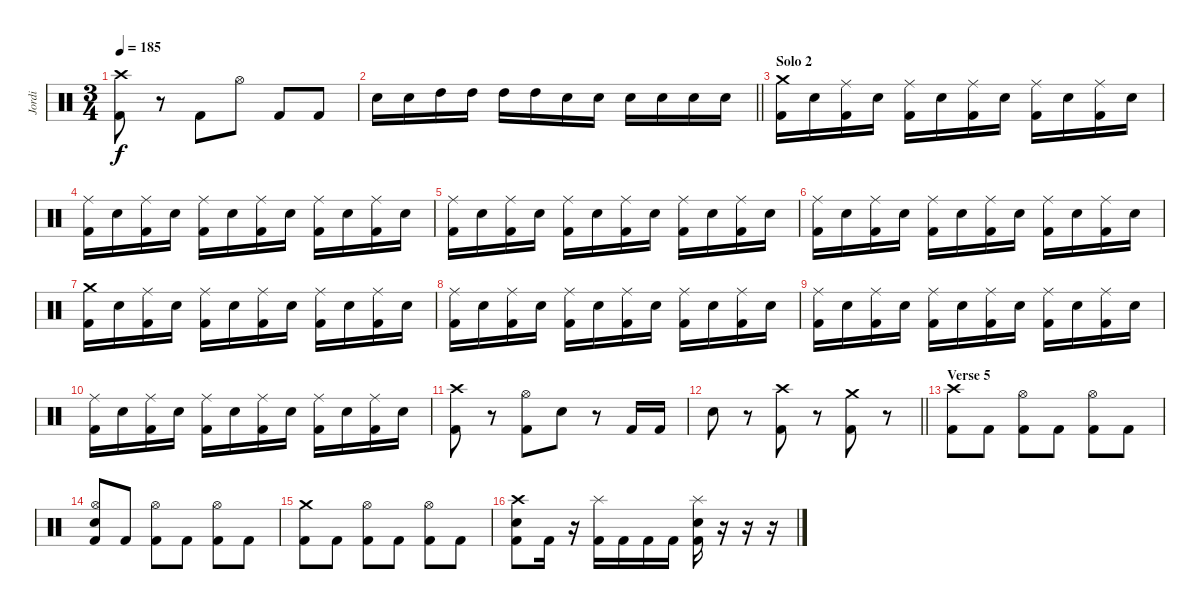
\track ("Jordi" "Jordi") {instrument percussion}
\staff {score}
\articulation defaults
\ts (3 4)
\tempo 185
\clef neutral
\ks c
("Crash high (hit)" "Kick (hit) 2").8{dy f} r.8 "Kick (hit) 2".8 "Hi-Hat (open)".8 "Kick (hit) 2".8 "Kick (hit) 2".8 |
\barLineRight lightlight "Snare (hit) 2".16 "Snare (hit) 2".16 "High Tom (hit)".16 "High Tom (hit)".16 "High Tom (hit)".16 "High Tom (hit)".16 "Snare (hit) 2".16 "Snare (hit) 2".16 "Snare (hit) 2".16 "Snare (hit) 2".16 "Snare (hit) 2".16 "Snare (hit) 2".16
|
\section ("" "Solo 2")
("Crash medium (hit)" "Kick (hit) 2").16 "Snare (hit) 2".16 ("Ride (middle)" "Kick (hit) 2").16 "Snare (hit) 2".16 ("Ride (middle)" "Kick (hit) 2").16 "Snare (hit) 2".16 ("Ride (middle)" "Kick (hit) 2").16 "Snare (hit) 2".16 ("Ride (middle)" "Kick (hit) 2").16 "Snare (hit) 2".16 ("Ride (middle)" "Kick (hit) 2").16 "Snare (hit) 2".16 |
("Ride (middle)" "Kick (hit) 2").16 "Snare (hit) 2".16 ("Ride (middle)" "Kick (hit) 2").16 "Snare (hit) 2".16 ("Ride (middle)" "Kick (hit) 2").16 "Snare (hit) 2".16 ("Ride (middle)" "Kick (hit) 2").16 "Snare (hit) 2".16 ("Ride (middle)" "Kick (hit) 2").16 "Snare (hit) 2".16 ("Ride (middle)" "Kick (hit) 2").16 "Snare (hit) 2".16 |
("Ride (middle)" "Kick (hit) 2").16 "Snare (hit) 2".16 ("Ride (middle)" "Kick (hit) 2").16 "Snare (hit) 2".16 ("Ride (middle)" "Kick (hit) 2").16 "Snare (hit) 2".16 ("Ride (middle)" "Kick (hit) 2").16 "Snare (hit) 2".16 ("Ride (middle)" "Kick (hit) 2").16 "Snare (hit) 2".16 ("Ride (middle)" "Kick (hit) 2").16 "Snare (hit) 2".16 |
("Ride (middle)" "Kick (hit) 2").16 "Snare (hit) 2".16 ("Ride (middle)" "Kick (hit) 2").16 "Snare (hit) 2".16 ("Ride (middle)" "Kick (hit) 2").16 "Snare (hit) 2".16 ("Ride (middle)" "Kick (hit) 2").16 "Snare (hit) 2".16 ("Ride (middle)" "Kick (hit) 2").16 "Snare (hit) 2".16 ("Ride (middle)" "Kick (hit) 2").16 "Snare (hit) 2".16 |
("Crash medium (hit)" "Kick (hit) 2").16 "Snare (hit) 2".16 ("Ride (middle)" "Kick (hit) 2").16 "Snare (hit) 2".16 ("Ride (middle)" "Kick (hit) 2").16 "Snare (hit) 2".16 ("Ride (middle)" "Kick (hit) 2").16 "Snare (hit) 2".16 ("Ride (middle)" "Kick (hit) 2").16 "Snare (hit) 2".16 ("Ride (middle)" "Kick (hit) 2").16 "Snare (hit) 2".16 |
("Ride (middle)" "Kick (hit) 2").16 "Snare (hit) 2".16 ("Ride (middle)" "Kick (hit) 2").16 "Snare (hit) 2".16 ("Ride (middle)" "Kick (hit) 2").16 "Snare (hit) 2".16 ("Ride (middle)" "Kick (hit) 2").16 "Snare (hit) 2".16 ("Ride (middle)" "Kick (hit) 2").16 "Snare (hit) 2".16 ("Ride (middle)" "Kick (hit) 2").16 "Snare (hit) 2".16 |
("Ride (middle)" "Kick (hit) 2").16 "Snare (hit) 2".16 ("Ride (middle)" "Kick (hit) 2").16 "Snare (hit) 2".16 ("Ride (middle)" "Kick (hit) 2").16 "Snare (hit) 2".16 ("Ride (middle)" "Kick (hit) 2").16 "Snare (hit) 2".16 ("Ride (middle)" "Kick (hit) 2").16 "Snare (hit) 2".16 ("Ride (middle)" "Kick (hit) 2").16 "Snare (hit) 2".16 |
("Ride (middle)" "Kick (hit) 2").16 "Snare (hit) 2".16 ("Ride (middle)" "Kick (hit) 2").16 "Snare (hit) 2".16 ("Ride (middle)" "Kick (hit) 2").16 "Snare (hit) 2".16 ("Ride (middle)" "Kick (hit) 2").16 "Snare (hit) 2".16 ("Ride (middle)" "Kick (hit) 2").16 "Snare (hit) 2".16 ("Ride (middle)" "Kick (hit) 2").16 "Snare (hit) 2".16 |
("Crash high (hit)" "Kick (hit) 2").8 r.8 ("Hi-Hat (open)" "Kick (hit) 2").8 "Snare (hit) 2".8 r.8 "Kick (hit) 2".16 "Kick (hit) 2".16 |
\barLineRight lightlight "Snare (hit) 2".8
r.8 ("Crash high (hit)" "Kick (hit) 2").8 r.8 ("Crash medium (hit)" "Kick (hit) 2").8 r.8 |
\section ("" "Verse 5")
("Crash high (hit)" "Kick (hit) 2").8 "Kick (hit) 2".8 ("Hi-Hat (open)" "Kick (hit) 2").8 "Kick (hit) 2".8 ("Hi-Hat (open)" "Kick (hit) 2").8 "Kick (hit) 2".8 |
("Hi-Hat (open)" "Snare (hit) 2" "Kick (hit) 2").8 "Kick (hit) 2".8 ("Hi-Hat (open)" "Kick (hit) 2").8 "Kick (hit) 2".8 ("Hi-Hat (open)" "Kick (hit) 2").8 "Kick (hit) 2".8 |
("Crash medium (hit)" "Kick (hit) 2").8 "Kick (hit) 2".8 ("Hi-Hat (open)" "Kick (hit) 2").8 "Kick (hit) 2".8 ("Hi-Hat (open)" "Kick (hit) 2").8 "Kick (hit) 2".8 |
("Crash high (hit)" "Snare (hit) 2" "Kick (hit) 2").8 "Kick (hit) 2".16 r.16 ("Splash (hit)" "Kick (hit) 2").16 "Kick (hit) 2".16 "Kick (hit) 2".16 "Kick (hit) 2".16 ("Splash (hit)" "Snare (hit) 2" "Kick (hit) 2").16 r.16 r.16 r.16
